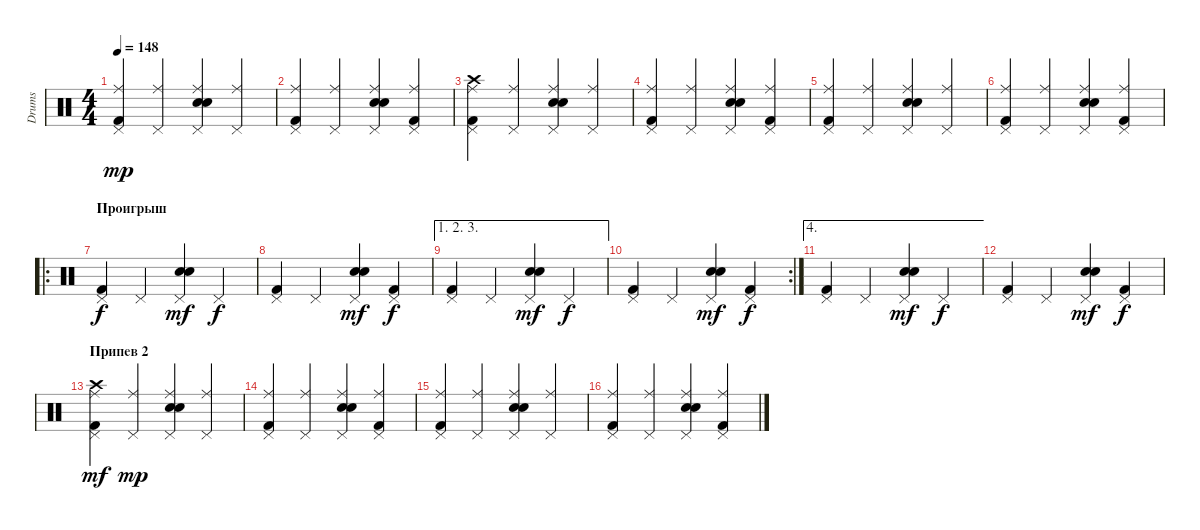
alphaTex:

\track ("Drums" "Drums") {instrument percussion}
\staff {score}
\articulation defaults
\ts (4 4)
\tempo 148
\clef neutral
\ks c
("Pedal Hi-Hat (hit)" "Kick (hit) 2" "Ride (middle)").4{dy mp} ("Pedal Hi-Hat (hit)" "Ride (middle)").4 ("Pedal Hi-Hat (hit)" "Snare (hit) 2" "Electric Snare (hit)" "Ride (middle)").4 ("Pedal Hi-Hat (hit)" "Ride (middle)").4 |
("Pedal Hi-Hat (hit)" "Kick (hit) 2" "Ride (middle)").4 ("Pedal Hi-Hat (hit)" "Ride (middle)").4 ("Pedal Hi-Hat (hit)" "Snare (hit) 2" "Electric Snare (hit)" "Ride (middle)").4 ("Pedal Hi-Hat (hit)" "Kick (hit) 2" "Ride (middle)").4 |
("Pedal Hi-Hat (hit)" "Kick (hit) 2" "Ride (middle)" "Crash high (hit)").4 ("Pedal Hi-Hat (hit)" "Ride (middle)").4 ("Pedal Hi-Hat (hit)" "Snare (hit) 2" "Electric Snare (hit)" "Ride (middle)").4 ("Pedal Hi-Hat (hit)" "Ride (middle)").4 |
("Pedal Hi-Hat (hit)" "Kick (hit) 2" "Ride (middle)").4 ("Pedal Hi-Hat (hit)" "Ride (middle)").4 ("Pedal Hi-Hat (hit)" "Snare (hit) 2" "Electric Snare (hit)" "Ride (middle)").4 ("Pedal Hi-Hat (hit)" "Kick (hit) 2" "Ride (middle)").4 |
("Pedal Hi-Hat (hit)" "Kick (hit) 2" "Ride (middle)").4 ("Pedal Hi-Hat (hit)" "Ride (middle)").4 ("Pedal Hi-Hat (hit)" "Snare (hit) 2" "Electric Snare (hit)" "Ride (middle)").4 ("Pedal Hi-Hat (hit)" "Ride (middle)").4 |
("Pedal Hi-Hat (hit)" "Kick (hit) 2" "Ride (middle)").4 ("Pedal Hi-Hat (hit)" "Ride (middle)").4 ("Pedal Hi-Hat (hit)" "Snare (hit) 2" "Electric Snare (hit)" "Ride (middle)").4 ("Pedal Hi-Hat (hit)" "Kick (hit) 2" "Ride (middle)").4 |
\ro
\section ("" "Проигрыш")
("Pedal Hi-Hat (hit)" "Kick (hit) 2").4{dy f} "Pedal Hi-Hat (hit)".4 ("Pedal Hi-Hat (hit)" "Snare (hit) 2" "Electric Snare (hit)").4{dy mf} "Pedal Hi-Hat (hit)".4{dy f} |
("Pedal Hi-Hat (hit)" "Kick (hit) 2").4 "Pedal Hi-Hat (hit)".4 ("Pedal Hi-Hat (hit)" "Snare (hit) 2" "Electric Snare (hit)").4{dy mf} ("Pedal Hi-Hat (hit)" "Kick (hit) 2").4{dy f} |
\ae (1 2 3)
("Pedal Hi-Hat (hit)" "Kick (hit) 2").4 "Pedal Hi-Hat (hit)".4 ("Pedal Hi-Hat (hit)" "Snare (hit) 2" "Electric Snare (hit)").4{dy mf} "Pedal Hi-Hat (hit)".4{dy f} |
\rc 2
("Pedal Hi-Hat (hit)" "Kick (hit) 2").4 "Pedal Hi-Hat (hit)".4 ("Pedal Hi-Hat (hit)" "Snare (hit) 2" "Electric Snare (hit)").4{dy mf} ("Pedal Hi-Hat (hit)" "Kick (hit) 2").4{dy f} |
\ae 4
("Pedal Hi-Hat (hit)" "Kick (hit) 2").4 "Pedal Hi-Hat (hit)".4 ("Pedal Hi-Hat (hit)" "Snare (hit) 2" "Electric Snare (hit)").4{dy mf} "Pedal Hi-Hat (hit)".4{dy f} |
("Pedal Hi-Hat (hit)" "Kick (hit) 2").4 "Pedal Hi-Hat (hit)".4 ("Pedal Hi-Hat (hit)" "Snare (hit) 2" "Electric Snare (hit)").4{dy mf} ("Pedal Hi-Hat (hit)" "Kick (hit) 2").4{dy f} |
\section ("" "Припев 2")
("Pedal Hi-Hat (hit)" "Kick (hit) 2" "Ride (middle)" "Crash high (hit)").4{dy mf} ("Pedal Hi-Hat (hit)" "Ride (middle)").4{dy mp} ("Pedal Hi-Hat (hit)" "Snare (hit) 2" "Electric Snare (hit)" "Ride (middle)").4 ("Pedal Hi-Hat (hit)" "Ride (middle)").4 |
("Pedal Hi-Hat (hit)" "Kick (hit) 2" "Ride (middle)").4 ("Pedal Hi-Hat (hit)" "Ride (middle)").4 ("Pedal Hi-Hat (hit)" "Snare (hit) 2" "Electric Snare (hit)" "Ride (middle)").4 ("Pedal Hi-Hat (hit)" "Kick (hit) 2" "Ride (middle)").4 |
("Pedal Hi-Hat (hit)" "Kick (hit) 2" "Ride (middle)").4 ("Pedal Hi-Hat (hit)" "Ride (middle)").4 ("Pedal Hi-Hat (hit)" "Snare (hit) 2" "Electric Snare (hit)" "Ride (middle)").4 ("Pedal Hi-Hat (hit)" "Ride (middle)").4 |
("Pedal Hi-Hat (hit)" "Kick (hit) 2" "Ride (middle)").4 ("Pedal Hi-Hat (hit)" "Ride (middle)").4 ("Pedal Hi-Hat (hit)" "Snare (hit) 2" "Electric Snare (hit)" "Ride (middle)").4 ("Pedal Hi-Hat (hit)" "Kick (hit) 2" "Ride (middle)").4
